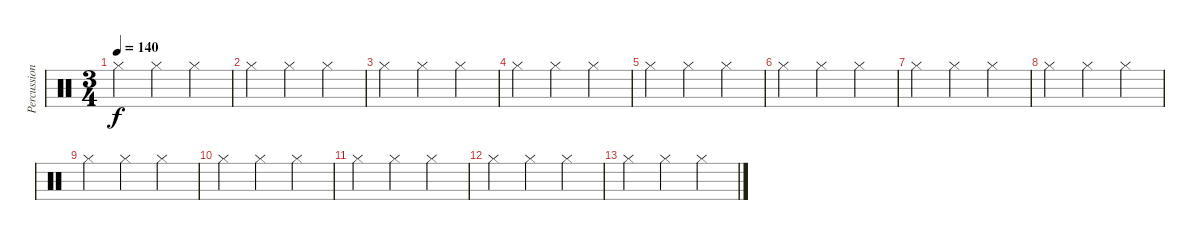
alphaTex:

\track ("Percussion" "Percussion") {instrument percussion}
\staff {score}
\articulation defaults
\ts (3 4)
\tempo 140
\clef neutral
\ks c "Hi-Hat (closed)".4{dy f} "Hi-Hat (closed)".4 "Hi-Hat (closed)".4
|
"Hi-Hat (closed)".4 "Hi-Hat (closed)".4 "Hi-Hat (closed)".4 |
"Hi-Hat (closed)".4 "Hi-Hat (closed)".4 "Hi-Hat (closed)".4 |
"Hi-Hat (closed)".4 "Hi-Hat (closed)".4 "Hi-Hat (closed)".4 |
"Hi-Hat (closed)".4 "Hi-Hat (closed)".4 "Hi-Hat (closed)".4 |
"Hi-Hat (closed)".4 "Hi-Hat (closed)".4 "Hi-Hat (closed)".4 |
"Hi-Hat (closed)".4 "Hi-Hat (closed)".4 "Hi-Hat (closed)".4 |
"Hi-Hat (closed)".4 "Hi-Hat (closed)".4 "Hi-Hat (closed)".4 |
"Hi-Hat (closed)".4 "Hi-Hat (closed)".4 "Hi-Hat (closed)".4 |
"Hi-Hat (closed)".4 "Hi-Hat (closed)".4 "Hi-Hat (closed)".4 |
"Hi-Hat (closed)".4 "Hi-Hat (closed)".4 "Hi-Hat (closed)".4 |
"Hi-Hat (closed)".4 "Hi-Hat (closed)".4 "Hi-Hat (closed)".4 |
"Hi-Hat (closed)".4 "Hi-Hat (closed)".4 "Hi-Hat (closed)".4
